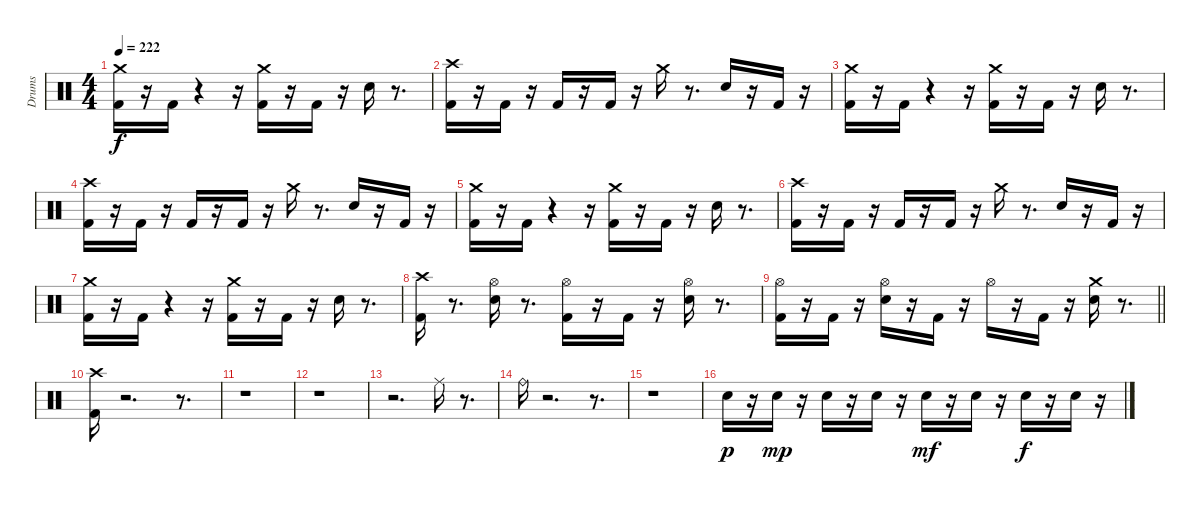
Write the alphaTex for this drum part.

\track ("Drums" "Drums") {instrument percussion}
\staff {score}
\articulation defaults
\ts (4 4)
\tempo 222
\clef neutral
\ks c
("Kick (hit) 2" "Crash medium (hit)").16{dy f} r.16 "Kick (hit) 2".16 r.4 r.16 ("Kick (hit) 2" "Crash medium (hit)").16 r.16 "Kick (hit) 2".16 r.16 "Snare (hit) 2".16 r.8{d} |
("Kick (hit) 2" "Crash high (hit)").16 r.16 "Kick (hit) 2".16 r.16 "Kick (hit) 2".16 r.16 "Kick (hit) 2".16 r.16 "Crash medium (hit)".16 r.8{d} "Snare (hit) 2".16 r.16 "Kick (hit) 2".16 r.16 |
("Kick (hit) 2" "Crash medium (hit)").16 r.16 "Kick (hit) 2".16 r.4 r.16 ("Kick (hit) 2" "Crash medium (hit)").16 r.16 "Kick (hit) 2".16 r.16 "Snare (hit) 2".16 r.8{d} |
("Kick (hit) 2" "Crash high (hit)").16 r.16 "Kick (hit) 2".16 r.16 "Kick (hit) 2".16 r.16 "Kick (hit) 2".16 r.16 "Crash medium (hit)".16 r.8{d} "Snare (hit) 2".16 r.16 "Kick (hit) 2".16 r.16 |
("Kick (hit) 2" "Crash medium (hit)").16 r.16 "Kick (hit) 2".16 r.4 r.16 ("Kick (hit) 2" "Crash medium (hit)").16 r.16 "Kick (hit) 2".16 r.16 "Snare (hit) 2".16 r.8{d} |
("Kick (hit) 2" "Crash high (hit)").16 r.16 "Kick (hit) 2".16 r.16 "Kick (hit) 2".16 r.16 "Kick (hit) 2".16 r.16 "Crash medium (hit)".16 r.8{d} "Snare (hit) 2".16 r.16 "Kick (hit) 2".16 r.16 |
("Kick (hit) 2" "Crash medium (hit)").16 r.16 "Kick (hit) 2".16 r.4 r.16 ("Kick (hit) 2" "Crash medium (hit)").16 r.16 "Kick (hit) 2".16 r.16 "Snare (hit) 2".16 r.8{d} |
("Kick (hit) 2" "Crash high (hit)").16 r.8{d} ("Snare (hit) 2" "Hi-Hat (open)").16 r.8{d} ("Kick (hit) 2" "Hi-Hat (open)").16 r.16 "Kick (hit) 2".16 r.16 ("Snare (hit) 2" "Hi-Hat (open)").16 r.8{d} |
\barLineRight lightlight
("Kick (hit) 2" "Hi-Hat (open)").16 r.16 "Kick (hit) 2".16 r.16 ("Snare (hit) 2" "Hi-Hat (open)").16 r.16 "Kick (hit) 2".16 r.16 "Hi-Hat (open)".16 r.16 "Kick (hit) 2".16 r.16 ("Snare (hit) 2" "Crash medium (hit)").16 r.8{d} |
\section ("" " ")
("Kick (hit) 2" "Crash high (hit)").16 r.2{d} r.8{d} |
r.1 |
r.1 |
r.2{d} "Ride (middle)".16 r.8{d} |
"Ride (bell)".16 r.2{d} r.8{d} |
r.1 |
"Snare (hit) 2".16{dy p} r.16 "Snare (hit) 2".16{dy mp} r.16 "Snare (hit) 2".16 r.16 "Snare (hit) 2".16 r.16 "Snare (hit) 2".16{dy mf} r.16 "Snare (hit) 2".16 r.16 "Snare (hit) 2".16{dy f} r.16 "Snare (hit) 2".16 r.16
